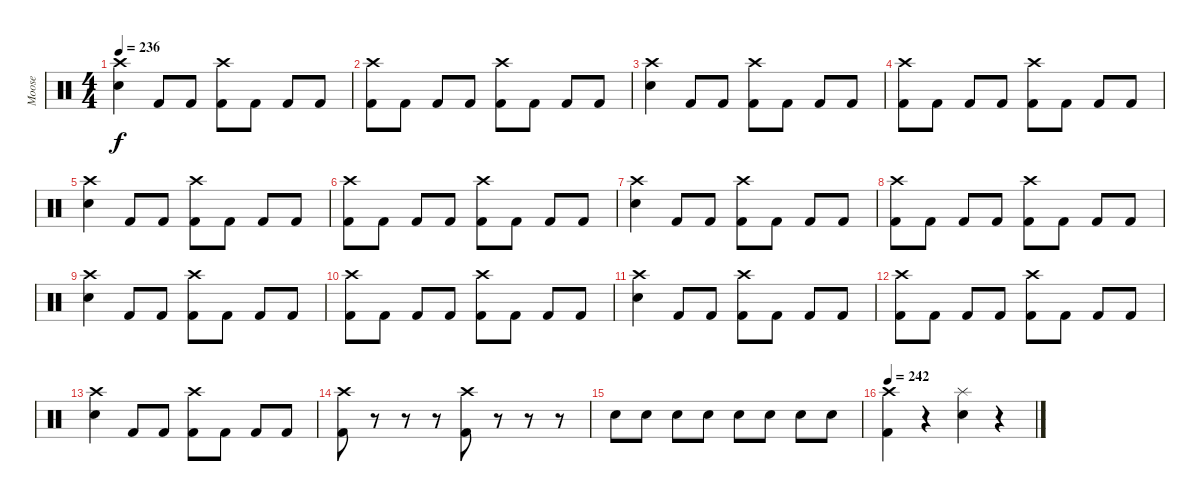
\track ("Moose" "Moose") {instrument percussion}
\staff {score}
\articulation defaults
\ts (4 4)
\tempo 236
\clef neutral
\ks c
("Crash high (hit)" "Electric Snare (hit)").4{dy f} "Kick (hit) 2".8 "Kick (hit) 2".8 ("Crash high (hit)" "Kick (hit) 2").8 "Kick (hit) 2".8 "Kick (hit) 2".8 "Kick (hit) 2".8 |
("Crash high (hit)" "Kick (hit) 2").8 "Kick (hit) 2".8 "Kick (hit) 2".8 "Kick (hit) 2".8 ("Crash high (hit)" "Kick (hit) 2").8 "Kick (hit) 2".8 "Kick (hit) 2".8 "Kick (hit) 2".8 |
("Crash high (hit)" "Electric Snare (hit)").4 "Kick (hit) 2".8 "Kick (hit) 2".8 ("Crash high (hit)" "Kick (hit) 2").8 "Kick (hit) 2".8 "Kick (hit) 2".8 "Kick (hit) 2".8 |
("Crash high (hit)" "Kick (hit) 2").8 "Kick (hit) 2".8 "Kick (hit) 2".8 "Kick (hit) 2".8 ("Crash high (hit)" "Kick (hit) 2").8 "Kick (hit) 2".8 "Kick (hit) 2".8 "Kick (hit) 2".8 |
("Crash high (hit)" "Electric Snare (hit)").4 "Kick (hit) 2".8 "Kick (hit) 2".8 ("Crash high (hit)" "Kick (hit) 2").8 "Kick (hit) 2".8 "Kick (hit) 2".8 "Kick (hit) 2".8 |
("Crash high (hit)" "Kick (hit) 2").8 "Kick (hit) 2".8 "Kick (hit) 2".8 "Kick (hit) 2".8 ("Crash high (hit)" "Kick (hit) 2").8 "Kick (hit) 2".8 "Kick (hit) 2".8 "Kick (hit) 2".8 |
("Crash high (hit)" "Electric Snare (hit)").4 "Kick (hit) 2".8 "Kick (hit) 2".8 ("Crash high (hit)" "Kick (hit) 2").8 "Kick (hit) 2".8 "Kick (hit) 2".8 "Kick (hit) 2".8 |
("Crash high (hit)" "Kick (hit) 2").8 "Kick (hit) 2".8 "Kick (hit) 2".8 "Kick (hit) 2".8 ("Crash high (hit)" "Kick (hit) 2").8 "Kick (hit) 2".8 "Kick (hit) 2".8 "Kick (hit) 2".8 |
("Crash high (hit)" "Electric Snare (hit)").4 "Kick (hit) 2".8 "Kick (hit) 2".8 ("Crash high (hit)" "Kick (hit) 2").8 "Kick (hit) 2".8 "Kick (hit) 2".8 "Kick (hit) 2".8 |
("Crash high (hit)" "Kick (hit) 2").8 "Kick (hit) 2".8 "Kick (hit) 2".8 "Kick (hit) 2".8 ("Crash high (hit)" "Kick (hit) 2").8 "Kick (hit) 2".8 "Kick (hit) 2".8 "Kick (hit) 2".8 |
("Crash high (hit)" "Electric Snare (hit)").4 "Kick (hit) 2".8 "Kick (hit) 2".8 ("Crash high (hit)" "Kick (hit) 2").8 "Kick (hit) 2".8 "Kick (hit) 2".8 "Kick (hit) 2".8 |
("Crash high (hit)" "Kick (hit) 2").8 "Kick (hit) 2".8 "Kick (hit) 2".8 "Kick (hit) 2".8 ("Crash high (hit)" "Kick (hit) 2").8 "Kick (hit) 2".8 "Kick (hit) 2".8 "Kick (hit) 2".8 |
("Crash high (hit)" "Electric Snare (hit)").4 "Kick (hit) 2".8 "Kick (hit) 2".8 ("Crash high (hit)" "Kick (hit) 2").8 "Kick (hit) 2".8 "Kick (hit) 2".8 "Kick (hit) 2".8 |
("Crash high (hit)" "Kick (hit) 2").8 r.8 r.8 r.8 ("Crash high (hit)" "Kick (hit) 2").8 r.8 r.8 r.8 |
"Electric Snare (hit)".8 "Electric Snare (hit)".8 "Electric Snare (hit)".8 "Electric Snare (hit)".8 "Electric Snare (hit)".8 "Electric Snare (hit)".8 "Electric Snare (hit)".8 "Electric Snare (hit)".8 |
\tempo 242
("Crash high (hit)" "Kick (hit) 2").4 r.4 ("Splash (hit)" "Electric Snare (hit)").4 r.4
